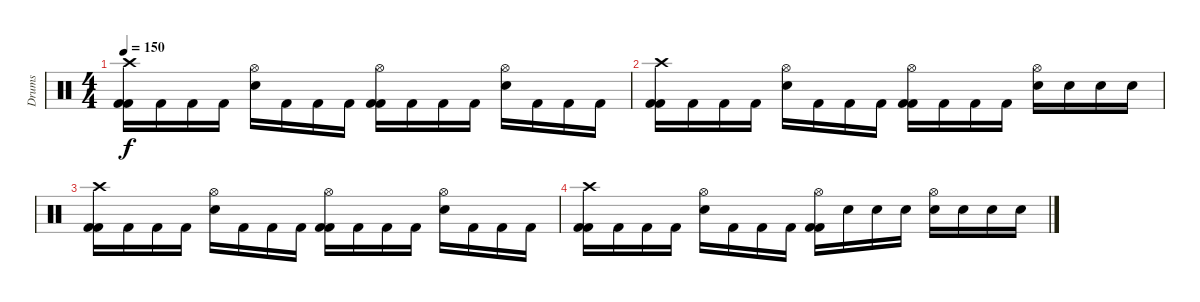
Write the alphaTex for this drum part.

\track ("Drums" "Drums") {instrument percussion}
\staff {score}
\articulation defaults
\ts (4 4)
\tempo 150
\clef neutral
\ks c
("Crash high (hit)" "Kick (hit) 2" "Kick (hit) 2").16{dy f} "Kick (hit) 2".16 "Kick (hit) 2".16 "Kick (hit) 2".16 ("Electric Snare (hit)" "Hi-Hat (open)").16 "Kick (hit) 2".16 "Kick (hit) 2".16 "Kick (hit) 2".16 ("Hi-Hat (open)" "Kick (hit) 2" "Kick (hit) 2").16 "Kick (hit) 2".16 "Kick (hit) 2".16 "Kick (hit) 2".16 ("Electric Snare (hit)" "Hi-Hat (open)").16 "Kick (hit) 2".16 "Kick (hit) 2".16 "Kick (hit) 2".16 |
("Crash high (hit)" "Kick (hit) 2" "Kick (hit) 2").16 "Kick (hit) 2".16 "Kick (hit) 2".16 "Kick (hit) 2".16 ("Electric Snare (hit)" "Hi-Hat (open)").16 "Kick (hit) 2".16 "Kick (hit) 2".16 "Kick (hit) 2".16 ("Hi-Hat (open)" "Kick (hit) 2" "Kick (hit) 2").16 "Kick (hit) 2".16 "Kick (hit) 2".16 "Kick (hit) 2".16 ("Electric Snare (hit)" "Hi-Hat (open)").16 "Electric Snare (hit)".16 "Electric Snare (hit)".16 "Electric Snare (hit)".16 |
("Crash high (hit)" "Kick (hit) 2" "Kick (hit) 2").16 "Kick (hit) 2".16 "Kick (hit) 2".16 "Kick (hit) 2".16 ("Electric Snare (hit)" "Hi-Hat (open)").16 "Kick (hit) 2".16 "Kick (hit) 2".16 "Kick (hit) 2".16 ("Hi-Hat (open)" "Kick (hit) 2" "Kick (hit) 2").16 "Kick (hit) 2".16 "Kick (hit) 2".16 "Kick (hit) 2".16 ("Electric Snare (hit)" "Hi-Hat (open)").16 "Kick (hit) 2".16 "Kick (hit) 2".16 "Kick (hit) 2".16 |
("Crash high (hit)" "Kick (hit) 2" "Kick (hit) 2").16 "Kick (hit) 2".16 "Kick (hit) 2".16 "Kick (hit) 2".16 ("Electric Snare (hit)" "Hi-Hat (open)").16 "Kick (hit) 2".16 "Kick (hit) 2".16 "Kick (hit) 2".16 ("Hi-Hat (open)" "Kick (hit) 2" "Kick (hit) 2").16 "Electric Snare (hit)".16 "Electric Snare (hit)".16 "Electric Snare (hit)".16 ("Electric Snare (hit)" "Hi-Hat (open)").16 "Electric Snare (hit)".16 "Electric Snare (hit)".16 "Electric Snare (hit)".16
